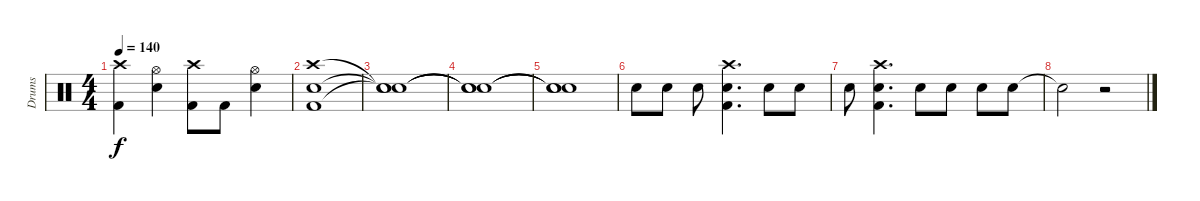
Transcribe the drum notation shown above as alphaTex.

\track ("Drums" "Drums") {instrument percussion}
\staff {score}
\articulation defaults
\ts (4 4)
\tempo 140
\clef neutral
\ks c
("Crash high (hit)" "Kick (hit) 2").4{dy f} ("Hi-Hat (open)" "Snare (hit) 2").4 ("Crash high (hit)" "Kick (hit) 2").8 "Kick (hit) 2".8 ("Hi-Hat (open)" "Snare (hit) 2").4 |
("Crash high (hit)" "Snare (hit) 2" "Kick (hit) 2").1 |
("Snare (hit)"{t} "Snare (hit)"{t} "Snare (hit)"{t}).1 |
("Snare (hit)"{t} "Snare (hit)"{t} "Snare (hit)"{t}).1 |
("Snare (hit)"{t} "Snare (hit)"{t} "Snare (hit)"{t}).1 |
"Snare (hit) 2".8 "Snare (hit) 2".8 "Snare (hit) 2".8 ("Crash high (hit)" "Snare (hit) 2" "Kick (hit) 2").4{d} "Snare (hit) 2".8 "Snare (hit) 2".8 |
"Snare (hit) 2".8 ("Crash high (hit)" "Snare (hit) 2" "Kick (hit) 2").4{d} "Snare (hit) 2".8 "Snare (hit) 2".8 "Snare (hit) 2".8 "Snare (hit) 2".8 |
"Snare (hit)"{t}.2 r.2
